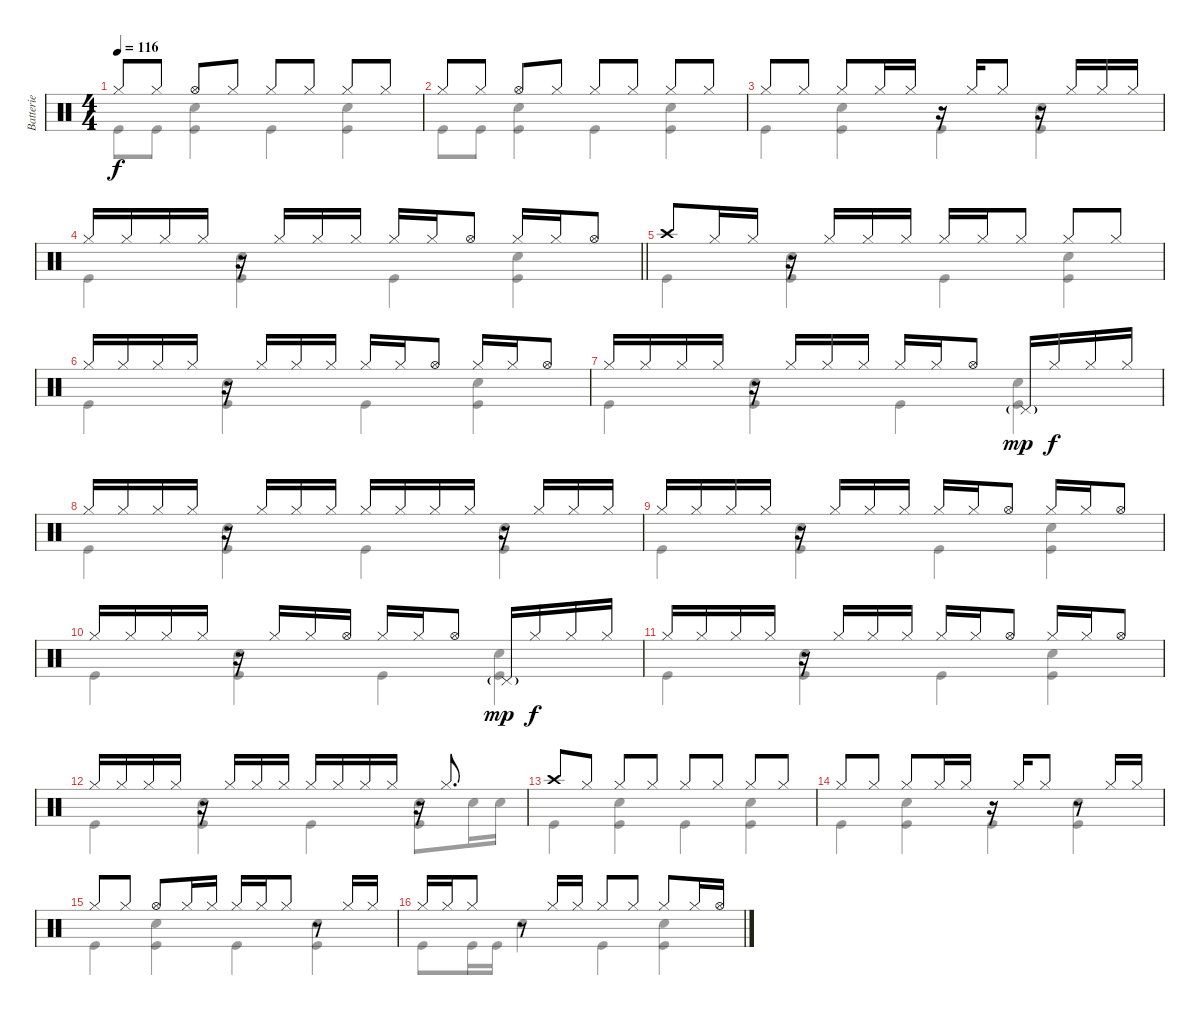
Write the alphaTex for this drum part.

\track ("Batterie" "Batterie") {instrument percussion}
\staff {score}
\articulation defaults
\voice
\ts (4 4)
\tempo 116
\clef neutral
\ks c "Hi-Hat (closed)".8{dy f} "Hi-Hat (closed)".8 "Hi-Hat (open)".8 "Hi-Hat (closed)".8 "Hi-Hat (closed)".8 "Hi-Hat (closed)".8 "Hi-Hat (closed)".8 "Hi-Hat (closed)".8
|
"Hi-Hat (closed)".8 "Hi-Hat (closed)".8 "Hi-Hat (open)".8 "Hi-Hat (closed)".8 "Hi-Hat (closed)".8 "Hi-Hat (closed)".8 "Hi-Hat (closed)".8 "Hi-Hat (closed)".8 |
"Hi-Hat (closed)".8 "Hi-Hat (closed)".8 "Hi-Hat (closed)".8 "Hi-Hat (closed)".16 "Hi-Hat (closed)".16 r.16 "Hi-Hat (closed)".16 "Hi-Hat (closed)".8 r.16 "Hi-Hat (closed)".16 "Hi-Hat (closed)".16 "Hi-Hat (closed)".16 |
\barLineRight lightlight "Hi-Hat (closed)".16 "Hi-Hat (closed)".16 "Hi-Hat (closed)".16 "Hi-Hat (closed)".16
r.16 "Hi-Hat (closed)".16 "Hi-Hat (closed)".16 "Hi-Hat (closed)".16 "Hi-Hat (closed)".16 "Hi-Hat (closed)".16 "Hi-Hat (open)".8 "Hi-Hat (closed)".16 "Hi-Hat (closed)".16 "Hi-Hat (open)".8 |
"Crash high (hit)".8 "Hi-Hat (closed)".16 "Hi-Hat (closed)".16 r.16 "Hi-Hat (closed)".16 "Hi-Hat (closed)".16 "Hi-Hat (closed)".16 "Hi-Hat (closed)".16 "Hi-Hat (closed)".16 "Hi-Hat (closed)".8 "Hi-Hat (closed)".8 "Hi-Hat (closed)".8 |
"Hi-Hat (closed)".16 "Hi-Hat (closed)".16 "Hi-Hat (closed)".16 "Hi-Hat (closed)".16 r.16 "Hi-Hat (closed)".16 "Hi-Hat (closed)".16 "Hi-Hat (closed)".16 "Hi-Hat (closed)".16 "Hi-Hat (closed)".16 "Hi-Hat (open)".8 "Hi-Hat (closed)".16 "Hi-Hat (closed)".16 "Hi-Hat (open)".8 |
"Hi-Hat (closed)".16 "Hi-Hat (closed)".16 "Hi-Hat (closed)".16 "Hi-Hat (closed)".16 r.16 "Hi-Hat (closed)".16 "Hi-Hat (closed)".16 "Hi-Hat (closed)".16 "Hi-Hat (closed)".16 "Hi-Hat (closed)".16 "Hi-Hat (open)".8 "Pedal Hi-Hat (hit)"{g}.16{dy mp} "Hi-Hat (closed)".16{dy f} "Hi-Hat (closed)".16 "Hi-Hat (closed)".16 |
"Hi-Hat (closed)".16 "Hi-Hat (closed)".16 "Hi-Hat (closed)".16 "Hi-Hat (closed)".16 r.16 "Hi-Hat (closed)".16 "Hi-Hat (closed)".16 "Hi-Hat (closed)".16 "Hi-Hat (closed)".16 "Hi-Hat (closed)".16 "Hi-Hat (closed)".16 "Hi-Hat (closed)".16 r.16 "Hi-Hat (closed)".16 "Hi-Hat (closed)".16 "Hi-Hat (closed)".16 |
"Hi-Hat (closed)".16 "Hi-Hat (closed)".16 "Hi-Hat (closed)".16 "Hi-Hat (closed)".16 r.16 "Hi-Hat (closed)".16 "Hi-Hat (closed)".16 "Hi-Hat (closed)".16 "Hi-Hat (closed)".16 "Hi-Hat (closed)".16 "Hi-Hat (open)".8 "Hi-Hat (closed)".16 "Hi-Hat (closed)".16 "Hi-Hat (open)".8 |
"Hi-Hat (closed)".16 "Hi-Hat (closed)".16 "Hi-Hat (closed)".16 "Hi-Hat (closed)".16 r.16 "Hi-Hat (closed)".16 "Hi-Hat (closed)".16 "Hi-Hat (open)".16 "Hi-Hat (closed)".16 "Hi-Hat (closed)".16 "Hi-Hat (open)".8 "Pedal Hi-Hat (hit)"{g}.16{dy mp} "Hi-Hat (closed)".16{dy f} "Hi-Hat (closed)".16 "Hi-Hat (closed)".16 |
"Hi-Hat (closed)".16 "Hi-Hat (closed)".16 "Hi-Hat (closed)".16 "Hi-Hat (closed)".16 r.16 "Hi-Hat (closed)".16 "Hi-Hat (closed)".16 "Hi-Hat (closed)".16 "Hi-Hat (closed)".16 "Hi-Hat (closed)".16 "Hi-Hat (open)".8 "Hi-Hat (closed)".16 "Hi-Hat (closed)".16 "Hi-Hat (open)".8 |
"Hi-Hat (closed)".16 "Hi-Hat (closed)".16 "Hi-Hat (closed)".16 "Hi-Hat (closed)".16 r.16 "Hi-Hat (closed)".16 "Hi-Hat (closed)".16 "Hi-Hat (closed)".16 "Hi-Hat (closed)".16 "Hi-Hat (closed)".16 "Hi-Hat (closed)".16 "Hi-Hat (closed)".16 r.16 "Hi-Hat (closed)".8{d} |
"Crash high (hit)".8 "Hi-Hat (closed)".8 "Hi-Hat (closed)".8 "Hi-Hat (closed)".8 "Hi-Hat (closed)".8 "Hi-Hat (closed)".8 "Hi-Hat (closed)".8 "Hi-Hat (closed)".8 |
"Hi-Hat (closed)".8 "Hi-Hat (closed)".8 "Hi-Hat (closed)".8 "Hi-Hat (closed)".16 "Hi-Hat (closed)".16 r.16 "Hi-Hat (closed)".16 "Hi-Hat (closed)".8 r.8 "Hi-Hat (closed)".16 "Hi-Hat (closed)".16 |
"Hi-Hat (closed)".8 "Hi-Hat (closed)".8 "Hi-Hat (open)".8 "Hi-Hat (closed)".16 "Hi-Hat (closed)".16 "Hi-Hat (closed)".16 "Hi-Hat (closed)".16 "Hi-Hat (closed)".8 r.8 "Hi-Hat (closed)".16 "Hi-Hat (closed)".16 |
"Hi-Hat (closed)".16 "Hi-Hat (closed)".16 "Hi-Hat (closed)".8 r.8 "Hi-Hat (closed)".16 "Hi-Hat (closed)".16 "Hi-Hat (closed)".8 "Hi-Hat (closed)".8 "Hi-Hat (closed)".8 "Hi-Hat (closed)".16 "Hi-Hat (open)".16
\voice
\clef neutral
\ottava regular
\simile none
\ks c "Kick (hit)".8{dy f} "Kick (hit)".8
("Snare (hit) 2" "Kick (hit)").4 "Kick (hit)".4 ("Snare (hit) 2" "Kick (hit)").4 |
"Kick (hit)".8 "Kick (hit)".8 ("Snare (hit) 2" "Kick (hit)").4 "Kick (hit)".4 ("Snare (hit) 2" "Kick (hit)").4 |
"Kick (hit)".4 ("Snare (hit) 2" "Kick (hit)").4 "Kick (hit)".4 ("Snare (hit) 2" "Kick (hit)").4 |
\barLineRight lightlight "Kick (hit)".4
("Snare (hit) 2" "Kick (hit)").4 "Kick (hit)".4 ("Snare (hit) 2" "Kick (hit)").4 |
"Kick (hit)".4 ("Snare (hit) 2" "Kick (hit)").4 "Kick (hit)".4 ("Snare (hit) 2" "Kick (hit)").4 |
"Kick (hit)".4 ("Snare (hit) 2" "Kick (hit)").4 "Kick (hit)".4 ("Snare (hit) 2" "Kick (hit)").4 |
"Kick (hit)".4 ("Snare (hit) 2" "Kick (hit)").4 "Kick (hit)".4 ("Snare (hit) 2" "Kick (hit)").4 |
"Kick (hit)".4 ("Snare (hit) 2" "Kick (hit)").4 "Kick (hit)".4 ("Snare (hit) 2" "Kick (hit)").4 |
"Kick (hit)".4 ("Snare (hit) 2" "Kick (hit)").4 "Kick (hit)".4 ("Snare (hit) 2" "Kick (hit)").4 |
"Kick (hit)".4 ("Snare (hit) 2" "Kick (hit)").4 "Kick (hit)".4 ("Snare (hit) 2" "Kick (hit)").4 |
"Kick (hit)".4 ("Snare (hit) 2" "Kick (hit)").4 "Kick (hit)".4 ("Snare (hit) 2" "Kick (hit)").4 |
"Kick (hit)".4 ("Snare (hit) 2" "Kick (hit)").4 "Kick (hit)".4 ("Snare (hit) 2" "Kick (hit)").8 "Snare (hit) 2".16 "Snare (hit) 2".16 |
"Kick (hit)".4 ("Snare (hit) 2" "Kick (hit)").4 "Kick (hit)".4 ("Snare (hit) 2" "Kick (hit)").4 |
"Kick (hit)".4 ("Snare (hit) 2" "Kick (hit)").4 "Kick (hit)".4 ("Snare (hit) 2" "Kick (hit)").4 |
"Kick (hit)".4 ("Snare (hit) 2" "Kick (hit)").4 "Kick (hit)".4 ("Snare (hit) 2" "Kick (hit)").4 |
"Kick (hit)".8 "Kick (hit)".16 "Kick (hit)".16 "Snare (hit) 2".4 "Kick (hit)".4 ("Snare (hit) 2" "Kick (hit)").4
